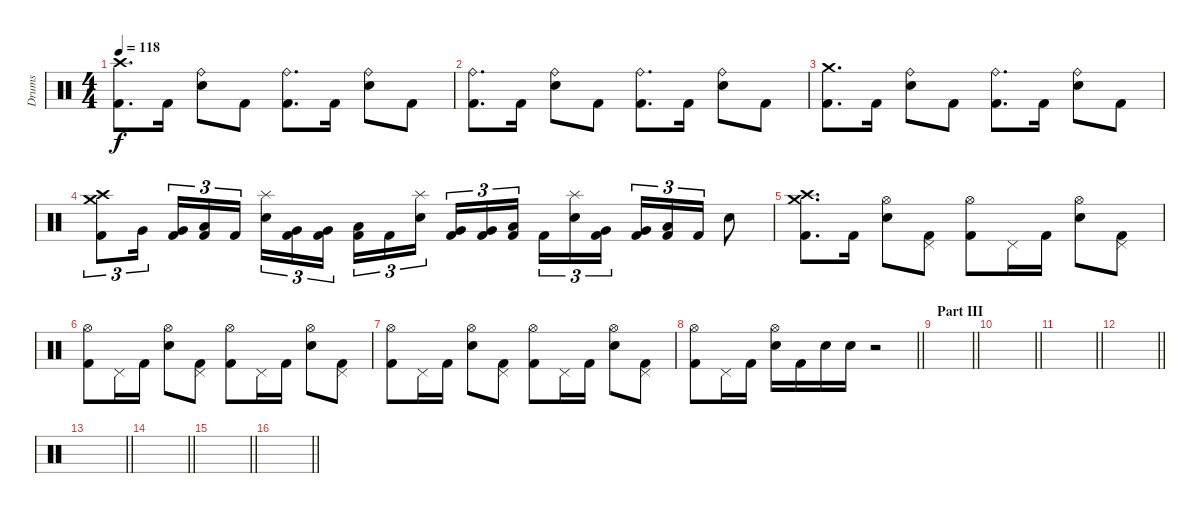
\track ("Drums" "Drums") {instrument percussion}
\staff {score}
\articulation defaults
\ts (4 4)
\tempo 118
\clef neutral
\ks c
("Crash high (hit)" "Kick (hit) 2").8{d dy f} "Kick (hit) 2".16 ("Ride (bell)" "Electric Snare (hit)").8 "Kick (hit) 2".8 ("Ride (bell)" "Kick (hit) 2").8{d} "Kick (hit) 2".16 ("Ride (bell)" "Electric Snare (hit)").8 "Kick (hit) 2".8 |
("Ride (bell)" "Kick (hit) 2").8{d} "Kick (hit) 2".16 ("Ride (bell)" "Electric Snare (hit)").8 "Kick (hit) 2".8 ("Ride (bell)" "Kick (hit) 2").8{d} "Kick (hit) 2".16 ("Ride (bell)" "Electric Snare (hit)").8 "Kick (hit) 2".8 |
("Crash medium (hit)" "Kick (hit) 2").8{d} "Kick (hit) 2".16 ("Ride (bell)" "Electric Snare (hit)").8 "Kick (hit) 2".8 ("Ride (bell)" "Kick (hit) 2").8{d} "Kick (hit) 2".16 ("Ride (bell)" "Electric Snare (hit)").8 "Kick (hit) 2".8 |
("Crash medium (hit)" "Crash high (hit)" "Kick (hit) 2").8{tu (3 2)} "Very Low Tom (hit)".16{tu (3 2) beam splitsecondary} ("Very Low Tom (hit)" "Kick (hit) 2").16{tu (3 2)} ("Low Floor Tom (hit)" "Kick (hit) 2").16{tu (3 2)} "Kick (hit) 2".16{tu (3 2)} ("Splash (hit)" "Electric Snare (hit)").16{tu (3 2)} ("Very Low Tom (hit)" "Kick (hit) 2").16{tu (3 2)} ("Very Low Tom (hit)" "Kick (hit) 2").16{tu (3 2) beam splitsecondary} ("Low Floor Tom (hit)" "Kick (hit) 2").16{tu (3 2)} "Kick (hit) 2".16{tu (3 2)} ("Splash (hit)" "Electric Snare (hit)").16{tu (3 2)} ("Very Low Tom (hit)" "Kick (hit) 2").16{tu (3 2)} ("Very Low Tom (hit)" "Kick (hit) 2").16{tu (3 2)} ("Low Floor Tom (hit)" "Kick (hit) 2").16{tu (3 2) beam splitsecondary} "Kick (hit) 2".16{tu (3 2)} ("Splash (hit)" "Electric Snare (hit)").16{tu (3 2)} ("Very Low Tom (hit)" "Kick (hit) 2").16{tu (3 2)} ("Very Low Tom (hit)" "Kick (hit) 2").16{tu (3 2)} ("Low Floor Tom (hit)" "Kick (hit) 2").16{tu (3 2)} "Kick (hit) 2".16{tu (3 2)} "Electric Snare (hit)".8 |
("Crash medium (hit)" "Crash high (hit)" "Kick (hit) 2").8{d} "Kick (hit) 2".16 ("Hi-Hat (open)" "Electric Snare (hit)").8 ("Pedal Hi-Hat (hit)" "Kick (hit) 2").8 ("Hi-Hat (open)" "Kick (hit) 2").8 "Pedal Hi-Hat (hit)".16 "Kick (hit) 2".16 ("Hi-Hat (open)" "Electric Snare (hit)").8 ("Pedal Hi-Hat (hit)" "Kick (hit) 2").8 |
("Hi-Hat (open)" "Kick (hit) 2").8 "Pedal Hi-Hat (hit)".16 "Kick (hit) 2".16 ("Hi-Hat (open)" "Electric Snare (hit)").8 ("Pedal Hi-Hat (hit)" "Kick (hit) 2").8 ("Hi-Hat (open)" "Kick (hit) 2").8 "Pedal Hi-Hat (hit)".16 "Kick (hit) 2".16 ("Hi-Hat (open)" "Electric Snare (hit)").8 ("Pedal Hi-Hat (hit)" "Kick (hit) 2").8 |
("Hi-Hat (open)" "Kick (hit) 2").8 "Pedal Hi-Hat (hit)".16 "Kick (hit) 2".16 ("Hi-Hat (open)" "Electric Snare (hit)").8 ("Pedal Hi-Hat (hit)" "Kick (hit) 2").8 ("Hi-Hat (open)" "Kick (hit) 2").8 "Pedal Hi-Hat (hit)".16 "Kick (hit) 2".16 ("Hi-Hat (open)" "Electric Snare (hit)").8 ("Pedal Hi-Hat (hit)" "Kick (hit) 2").8 |
\barLineRight lightlight
("Hi-Hat (open)" "Kick (hit) 2").8 "Pedal Hi-Hat (hit)".16 "Kick (hit) 2".16 ("Hi-Hat (open)" "Electric Snare (hit)").16 "Kick (hit) 2".16 "Electric Snare (hit)".16 "Electric Snare (hit)".16 r.2 |
\section ("" "Part III")
\barLineRight lightlight
|
\barLineRight lightlight
|
\barLineRight lightlight
|
\barLineRight lightlight
|
\barLineRight lightlight
|
\barLineRight lightlight
|
\barLineRight lightlight
|
\barLineRight lightlight
